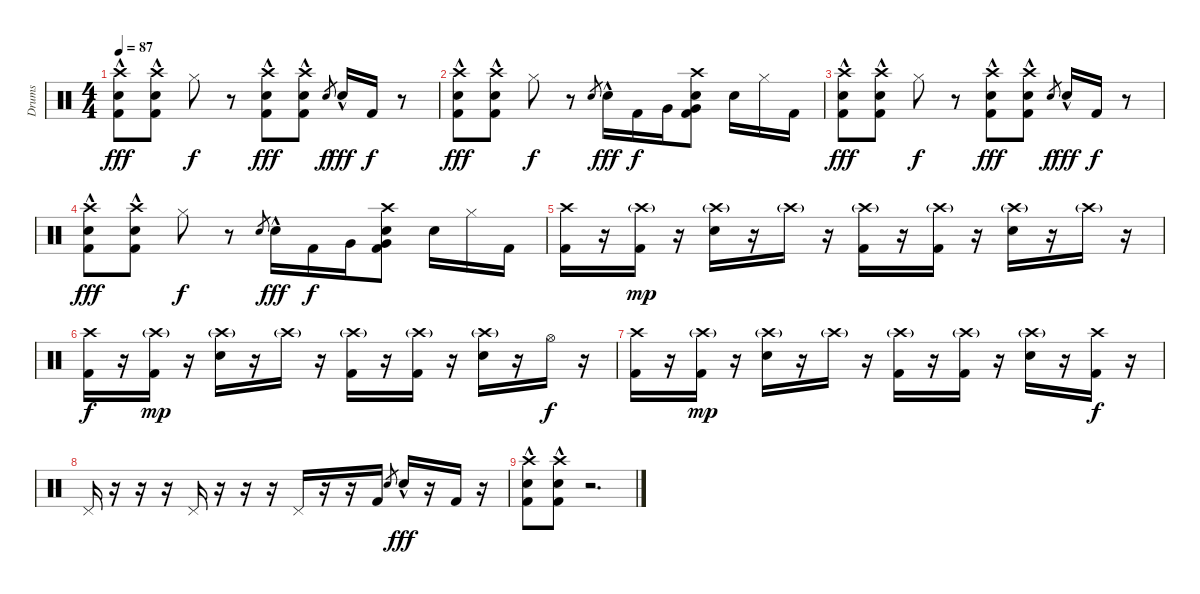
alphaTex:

\track ("Drums" "Drums") {instrument percussion}
\staff {score}
\articulation defaults
\ts (4 4)
\tempo 87
\clef neutral
\ks c
("Crash high (hit)"{hac} "Snare (hit) 2"{hac} "Kick (hit) 2"{hac}).8{dy fff volume 14} ("Crash high (hit)"{hac} "Snare (hit) 2"{hac} "Kick (hit) 2"{hac}).8 "Hi-Hat (closed)".8{dy f} r.8 ("Crash high (hit)"{hac} "Snare (hit) 2"{hac} "Kick (hit) 2"{hac}).8{dy fff} ("Crash high (hit)"{hac} "Snare (hit) 2"{hac} "Kick (hit) 2"{hac}).8 "Snare (hit) 2"{x}.8{gr dy f} "Snare (hit) 2"{hac}.16{dy fff} "Kick (hit) 2".16{dy f} r.8 |
("Crash high (hit)"{hac} "Snare (hit) 2"{hac} "Kick (hit) 2"{hac}).8{dy fff} ("Crash high (hit)"{hac} "Snare (hit) 2"{hac} "Kick (hit) 2"{hac}).8 "Hi-Hat (closed)".8{dy f} r.8 "Snare (hit) 2"{x}.8{gr} "Snare (hit) 2"{hac}.16{dy fff} "Kick (hit) 2".16{dy f} "Very Low Tom (hit)".16 ("Crash high (hit)" "Snare (hit) 2" "Very Low Tom (hit)" "Kick (hit) 2").8 "Snare (hit) 2".16 "Hi-Hat (closed)".16 "Kick (hit) 2".16 |
("Crash high (hit)"{hac} "Snare (hit) 2"{hac} "Kick (hit) 2"{hac}).8{dy fff} ("Crash high (hit)"{hac} "Snare (hit) 2"{hac} "Kick (hit) 2"{hac}).8 "Hi-Hat (closed)".8{dy f} r.8 ("Crash high (hit)"{hac} "Snare (hit) 2"{hac} "Kick (hit) 2"{hac}).8{dy fff} ("Crash high (hit)"{hac} "Snare (hit) 2"{hac} "Kick (hit) 2"{hac}).8 "Snare (hit) 2"{x}.8{gr dy f} "Snare (hit) 2"{hac}.16{dy fff} "Kick (hit) 2".16{dy f} r.8 |
("Crash high (hit)"{hac} "Snare (hit) 2"{hac} "Kick (hit) 2"{hac}).8{dy fff} ("Crash high (hit)"{hac} "Snare (hit) 2"{hac} "Kick (hit) 2"{hac}).8 "Hi-Hat (closed)".8{dy f} r.8 "Snare (hit) 2"{x}.8{gr} "Snare (hit) 2"{hac}.16{dy fff} "Kick (hit) 2".16{dy f} "Very Low Tom (hit)".16 ("Crash high (hit)" "Snare (hit) 2" "Very Low Tom (hit)" "Kick (hit) 2").8 "Snare (hit) 2".16 "Hi-Hat (closed)".16 "Kick (hit) 2".16 |
("Crash high (hit)" "Kick (hit) 2").16 r.16 ("Crash high (hit)"{g} "Kick (hit) 2").16{dy mp} r.16 ("Crash high (hit)"{g} "Snare (hit) 2").16 r.16 "Crash high (hit)"{g}.16 r.16 ("Crash high (hit)"{g} "Kick (hit) 2").16 r.16 ("Crash high (hit)"{g} "Kick (hit) 2").16 r.16 ("Crash high (hit)"{g} "Snare (hit) 2").16 r.16 "Crash high (hit)"{g}.16 r.16 |
("Crash high (hit)" "Kick (hit) 2").16{dy f} r.16 ("Crash high (hit)"{g} "Kick (hit) 2").16{dy mp} r.16 ("Crash high (hit)"{g} "Snare (hit) 2").16 r.16 "Crash high (hit)"{g}.16 r.16 ("Crash high (hit)"{g} "Kick (hit) 2").16 r.16 ("Crash high (hit)"{g} "Kick (hit) 2").16 r.16 ("Crash high (hit)"{g} "Snare (hit) 2").16 r.16 "Hi-Hat (open)".16{dy f} r.16 |
("Crash high (hit)" "Kick (hit) 2").16 r.16 ("Crash high (hit)"{g} "Kick (hit) 2").16{dy mp} r.16 ("Crash high (hit)"{g} "Snare (hit) 2").16 r.16 "Crash high (hit)"{g}.16 r.16 ("Crash high (hit)"{g} "Kick (hit) 2").16 r.16 ("Crash high (hit)"{g} "Kick (hit) 2").16 r.16 ("Crash high (hit)"{g} "Snare (hit) 2").16 r.16 ("Crash high (hit)" "Kick (hit) 2").16{dy f} r.16 |
"Pedal Hi-Hat (hit)".16 r.16 r.16 r.16 "Pedal Hi-Hat (hit)".16 r.16 r.16 r.16 "Pedal Hi-Hat (hit)".16 r.16 r.16 "Kick (hit) 2".16 "Snare (hit) 2".8{gr} "Snare (hit) 2"{hac}.16{dy fff} r.16 "Kick (hit) 2".16 r.16 |
("Crash high (hit)"{hac} "Snare (hit) 2"{hac} "Kick (hit) 2"{hac}).8 ("Crash high (hit)"{hac} "Snare (hit) 2"{hac} "Kick (hit) 2"{hac}).8 r.2{d}
